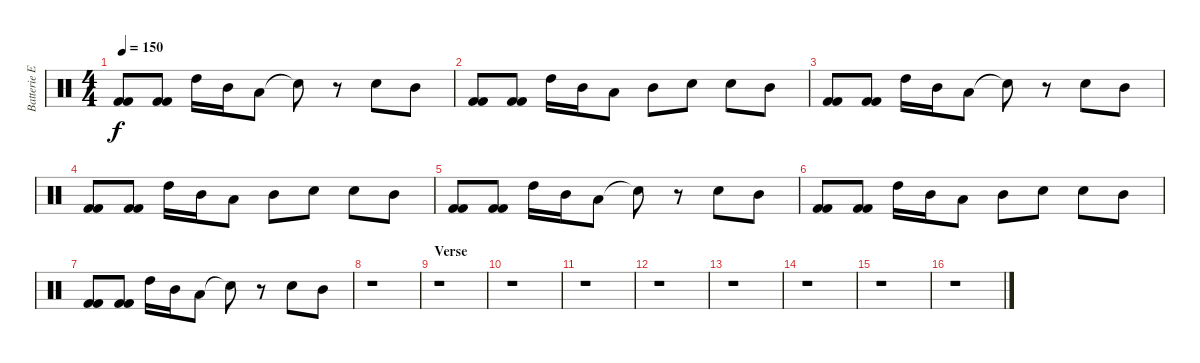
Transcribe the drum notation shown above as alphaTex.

\track ("Batterie Electronique" "Batterie E") {instrument percussion}
\staff {score}
\articulation defaults
\ts (4 4)
\tempo 150
\clef neutral
\ks c
("Kick (hit) 2" "Kick (hit) 2").8{dy f volume 10} ("Kick (hit) 2" "Kick (hit) 2").8 "High Tom (hit)".16 "Mid Tom (hit)".16 "Low Tom (hit)".8 "Snare (hit)"{t}.8 r.8 "Snare (hit) 2".8 "Mid Tom (hit)".8 |
("Kick (hit) 2" "Kick (hit) 2").8 ("Kick (hit) 2" "Kick (hit) 2").8 "High Tom (hit)".16 "Mid Tom (hit)".16 "Low Tom (hit)".8 "Mid Tom (hit)".8 "Snare (hit) 2".8 "Snare (hit) 2".8 "Mid Tom (hit)".8 |
("Kick (hit) 2" "Kick (hit) 2").8 ("Kick (hit) 2" "Kick (hit) 2").8 "High Tom (hit)".16 "Mid Tom (hit)".16 "Low Tom (hit)".8 "Snare (hit)"{t}.8 r.8 "Snare (hit) 2".8 "Mid Tom (hit)".8 |
("Kick (hit) 2" "Kick (hit) 2").8 ("Kick (hit) 2" "Kick (hit) 2").8 "High Tom (hit)".16 "Mid Tom (hit)".16 "Low Tom (hit)".8 "Mid Tom (hit)".8 "Snare (hit) 2".8 "Snare (hit) 2".8 "Mid Tom (hit)".8 |
("Kick (hit) 2" "Kick (hit) 2").8 ("Kick (hit) 2" "Kick (hit) 2").8 "High Tom (hit)".16 "Mid Tom (hit)".16 "Low Tom (hit)".8 "Snare (hit)"{t}.8 r.8 "Snare (hit) 2".8 "Mid Tom (hit)".8 |
("Kick (hit) 2" "Kick (hit) 2").8 ("Kick (hit) 2" "Kick (hit) 2").8 "High Tom (hit)".16 "Mid Tom (hit)".16 "Low Tom (hit)".8 "Mid Tom (hit)".8 "Snare (hit) 2".8 "Snare (hit) 2".8 "Mid Tom (hit)".8 |
("Kick (hit) 2" "Kick (hit) 2").8 ("Kick (hit) 2" "Kick (hit) 2").8 "High Tom (hit)".16 "Mid Tom (hit)".16 "Low Tom (hit)".8 "Snare (hit)"{t}.8 r.8 "Snare (hit) 2".8 "Mid Tom (hit)".8 |
r.1 |
\section ("" "Verse")
r.1 |
r.1 |
r.1 |
r.1 |
r.1 |
r.1 |
r.1 |
r.1
